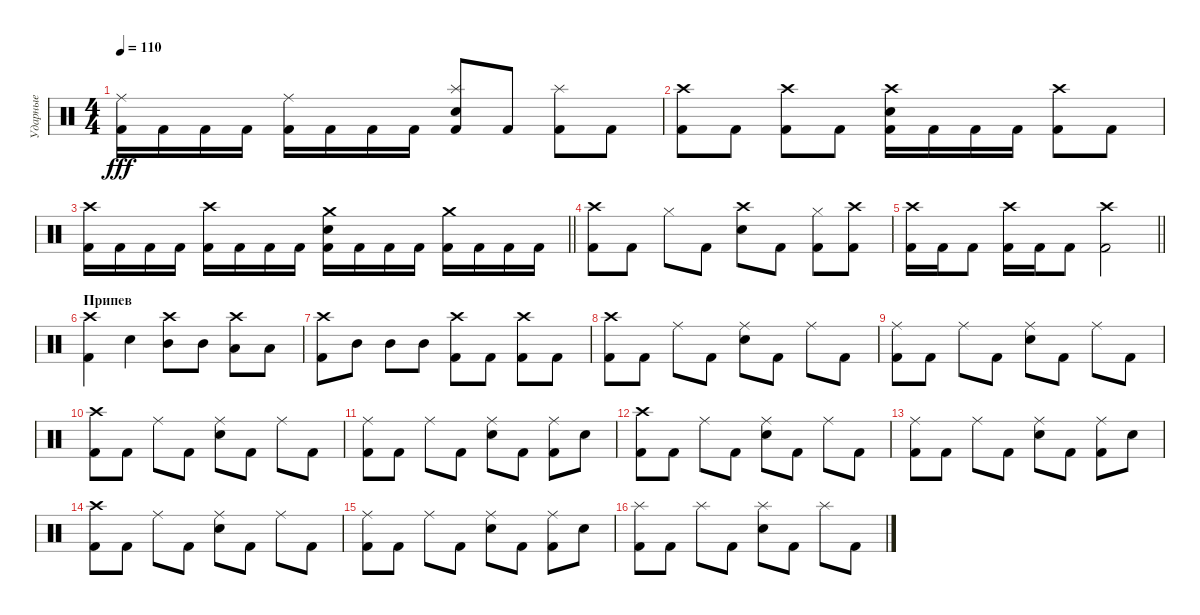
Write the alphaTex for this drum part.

\track ("Ударные" "Ударные") {mute instrument percussion}
\staff {score}
\articulation defaults
\ts (4 4)
\tempo 110
\clef neutral
\ks c
("Ride (middle)" "Kick (hit) 2").16{dy fff} "Kick (hit) 2".16 "Kick (hit) 2".16 "Kick (hit) 2".16 ("Ride (middle)" "Kick (hit) 2").16 "Kick (hit) 2".16 "Kick (hit) 2".16 "Kick (hit) 2".16 ("Splash (hit)" "Snare (hit) 2" "Kick (hit) 2").8 "Kick (hit) 2".8 ("Splash (hit)" "Kick (hit) 2").8 "Kick (hit) 2".8 |
("Crash high (hit)" "Kick (hit) 2").8 "Kick (hit) 2".8 ("Crash high (hit)" "Kick (hit) 2").8 "Kick (hit) 2".8 ("Crash high (hit)" "Snare (hit) 2" "Kick (hit) 2").16 "Kick (hit) 2".16 "Kick (hit) 2".16 "Kick (hit) 2".16 ("Crash high (hit)" "Kick (hit) 2").8 "Kick (hit) 2".8 |
\barLineRight lightlight
("Crash high (hit)" "Kick (hit) 2").16 "Kick (hit) 2".16 "Kick (hit) 2".16 "Kick (hit) 2".16 ("Crash high (hit)" "Kick (hit) 2").16 "Kick (hit) 2".16 "Kick (hit) 2".16 "Kick (hit) 2".16 ("Crash medium (hit)" "Snare (hit) 2" "Kick (hit) 2").16 "Kick (hit) 2".16 "Kick (hit) 2".16 "Kick (hit) 2".16 ("Crash medium (hit)" "Kick (hit) 2").16 "Kick (hit) 2".16 "Kick (hit) 2".16 "Kick (hit) 2".16 |
("Crash high (hit)" "Kick (hit) 2").8 "Kick (hit) 2".8 "Hi-Hat (closed)".8 "Kick (hit) 2".8 ("Crash high (hit)" "Snare (hit) 2").8 "Kick (hit) 2".8 ("Hi-Hat (closed)" "Kick (hit) 2").8 ("Crash high (hit)" "Kick (hit) 2").8 |
\barLineRight lightlight
("Crash high (hit)" "Kick (hit) 2").16 "Kick (hit) 2".16 "Kick (hit) 2".8 ("Crash high (hit)" "Kick (hit) 2").16 "Kick (hit) 2".16 "Kick (hit) 2".8 ("Crash high (hit)" "Kick (hit) 2").2 |
\section ("" "Припев")
("Crash high (hit)" "Kick (hit) 2").4 "Snare (hit) 2".4 ("Crash high (hit)" "Mid Tom (hit)").8 "Mid Tom (hit)".8 ("Crash high (hit)" "Low Tom (hit)").8 "Low Tom (hit)".8 |
("Crash high (hit)" "Kick (hit) 2").8 "Mid Tom (hit)".8 "Mid Tom (hit)".8 "Mid Tom (hit)".8 ("Crash high (hit)" "Kick (hit) 2").8 "Kick (hit) 2".8 ("Crash high (hit)" "Kick (hit) 2").8 "Kick (hit) 2".8 |
("Crash high (hit)" "Kick (hit) 2").8 "Kick (hit) 2".8 "Ride (middle)".8 "Kick (hit) 2".8 ("Ride (middle)" "Snare (hit) 2").8 "Kick (hit) 2".8 "Ride (middle)".8 "Kick (hit) 2".8 |
("Ride (middle)" "Kick (hit) 2").8 "Kick (hit) 2".8 "Ride (middle)".8 "Kick (hit) 2".8 ("Ride (middle)" "Snare (hit) 2").8 "Kick (hit) 2".8 "Ride (middle)".8 "Kick (hit) 2".8 |
("Crash high (hit)" "Kick (hit) 2").8 "Kick (hit) 2".8 "Ride (middle)".8 "Kick (hit) 2".8 ("Ride (middle)" "Snare (hit) 2").8 "Kick (hit) 2".8 "Ride (middle)".8 "Kick (hit) 2".8 |
("Ride (middle)" "Kick (hit) 2").8 "Kick (hit) 2".8 "Ride (middle)".8 "Kick (hit) 2".8 ("Ride (middle)" "Snare (hit) 2").8 "Kick (hit) 2".8 ("Ride (middle)" "Kick (hit) 2").8 "Snare (hit) 2".8 |
("Crash high (hit)" "Kick (hit) 2").8 "Kick (hit) 2".8 "Ride (middle)".8 "Kick (hit) 2".8 ("Ride (middle)" "Snare (hit) 2").8 "Kick (hit) 2".8 "Ride (middle)".8 "Kick (hit) 2".8 |
("Ride (middle)" "Kick (hit) 2").8 "Kick (hit) 2".8 "Ride (middle)".8 "Kick (hit) 2".8 ("Ride (middle)" "Snare (hit) 2").8 "Kick (hit) 2".8 ("Ride (middle)" "Kick (hit) 2").8 "Snare (hit) 2".8 |
("Crash high (hit)" "Kick (hit) 2").8 "Kick (hit) 2".8 "Ride (middle)".8 "Kick (hit) 2".8 ("Ride (middle)" "Snare (hit) 2").8 "Kick (hit) 2".8 "Ride (middle)".8 "Kick (hit) 2".8 |
("Ride (middle)" "Kick (hit) 2").8 "Kick (hit) 2".8 "Ride (middle)".8 "Kick (hit) 2".8 ("Ride (middle)" "Snare (hit) 2").8 "Kick (hit) 2".8 ("Ride (middle)" "Kick (hit) 2").8 "Snare (hit) 2".8 |
("Splash (hit)" "Kick (hit) 2").8 "Kick (hit) 2".8 "Splash (hit)".8 "Kick (hit) 2".8 ("Splash (hit)" "Snare (hit) 2").8 "Kick (hit) 2".8 "Splash (hit)".8 "Kick (hit) 2".8
